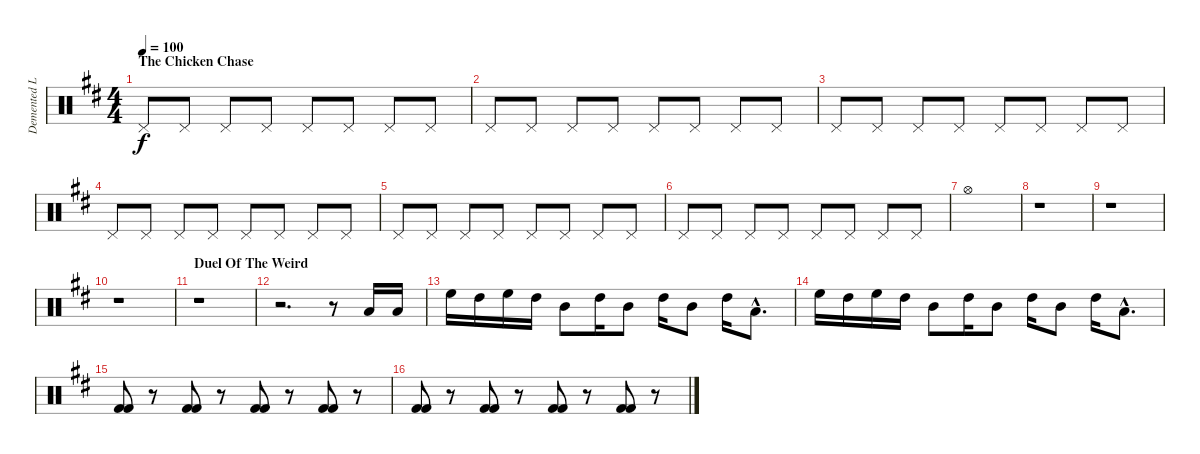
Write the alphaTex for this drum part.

\track ("Demented Leming (Drums)" "Demented L") {instrument percussion}
\staff {score}
\articulation defaults
\ts (4 4)
\section ("" "The Chicken Chase")
\tempo 100
\clef neutral
\ks d "Pedal Hi-Hat (hit)".8{dy f} "Pedal Hi-Hat (hit)".8 "Pedal Hi-Hat (hit)".8 "Pedal Hi-Hat (hit)".8 "Pedal Hi-Hat (hit)".8 "Pedal Hi-Hat (hit)".8 "Pedal Hi-Hat (hit)".8 "Pedal Hi-Hat (hit)".8
|
"Pedal Hi-Hat (hit)".8 "Pedal Hi-Hat (hit)".8 "Pedal Hi-Hat (hit)".8 "Pedal Hi-Hat (hit)".8 "Pedal Hi-Hat (hit)".8 "Pedal Hi-Hat (hit)".8 "Pedal Hi-Hat (hit)".8 "Pedal Hi-Hat (hit)".8 |
"Pedal Hi-Hat (hit)".8 "Pedal Hi-Hat (hit)".8 "Pedal Hi-Hat (hit)".8 "Pedal Hi-Hat (hit)".8 "Pedal Hi-Hat (hit)".8 "Pedal Hi-Hat (hit)".8 "Pedal Hi-Hat (hit)".8 "Pedal Hi-Hat (hit)".8 |
"Pedal Hi-Hat (hit)".8 "Pedal Hi-Hat (hit)".8 "Pedal Hi-Hat (hit)".8 "Pedal Hi-Hat (hit)".8 "Pedal Hi-Hat (hit)".8 "Pedal Hi-Hat (hit)".8 "Pedal Hi-Hat (hit)".8 "Pedal Hi-Hat (hit)".8 |
"Pedal Hi-Hat (hit)".8 "Pedal Hi-Hat (hit)".8 "Pedal Hi-Hat (hit)".8 "Pedal Hi-Hat (hit)".8 "Pedal Hi-Hat (hit)".8 "Pedal Hi-Hat (hit)".8 "Pedal Hi-Hat (hit)".8 "Pedal Hi-Hat (hit)".8 |
"Pedal Hi-Hat (hit)".8 "Pedal Hi-Hat (hit)".8 "Pedal Hi-Hat (hit)".8 "Pedal Hi-Hat (hit)".8 "Pedal Hi-Hat (hit)".8 "Pedal Hi-Hat (hit)".8 "Pedal Hi-Hat (hit)".8 "Pedal Hi-Hat (hit)".8 |
"Hi-Hat (open)".1 |
r.1 |
r.1 |
r.1 |
\section ("" "Duel Of The Weird")
r.1 |
r.2{d} r.8 "Low Tom (hit)".16 "Low Tom (hit)".16 |
"High Floor Tom (hit)".16 "High Tom (hit)".16 "High Floor Tom (hit)".16 "High Tom (hit)".16 "Mid Tom (hit)".8 "High Tom (hit)".16 "Mid Tom (hit)".8 "High Tom (hit)".16 "Mid Tom (hit)".8 "High Tom (hit)".16 "Low Tom (hit)"{hac}.8{d} |
"High Floor Tom (hit)".16 "High Tom (hit)".16 "High Floor Tom (hit)".16 "High Tom (hit)".16 "Mid Tom (hit)".8 "High Tom (hit)".16 "Mid Tom (hit)".8 "High Tom (hit)".16 "Mid Tom (hit)".8 "High Tom (hit)".16 "Low Tom (hit)"{hac}.8{d} |
("Kick (hit) 2" "Kick (hit) 2").8 r.8 ("Kick (hit) 2" "Kick (hit) 2").8 r.8 ("Kick (hit) 2" "Kick (hit) 2").8 r.8 ("Kick (hit) 2" "Kick (hit) 2").8 r.8 |
("Kick (hit) 2" "Kick (hit) 2").8 r.8 ("Kick (hit) 2" "Kick (hit) 2").8 r.8 ("Kick (hit) 2" "Kick (hit) 2").8 r.8 ("Kick (hit) 2" "Kick (hit) 2").8 r.8
